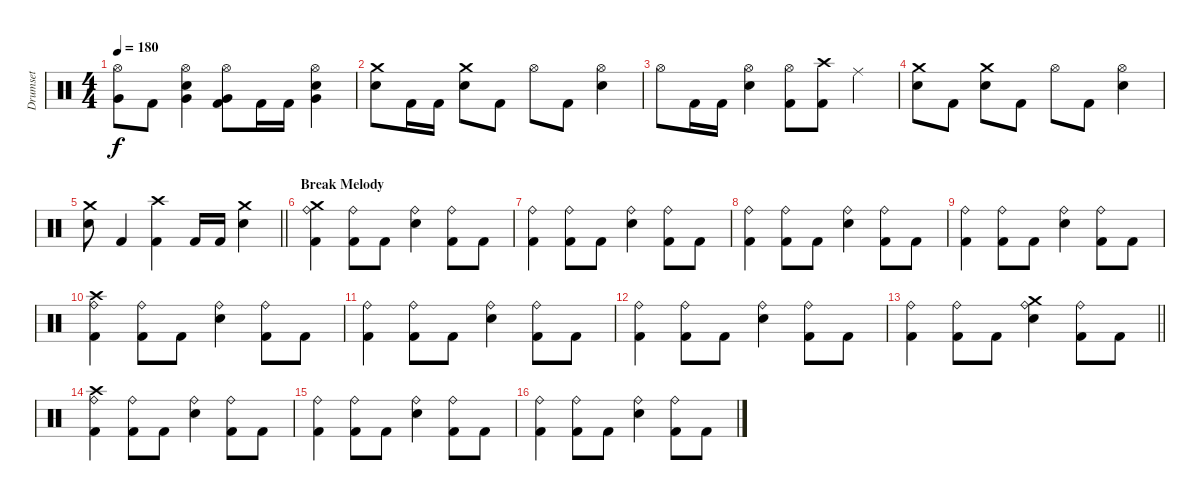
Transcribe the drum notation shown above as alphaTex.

\track ("Drumset" "Drumset") {instrument percussion}
\staff {score}
\articulation defaults
\ts (4 4)
\tempo 180
\clef neutral
\ks c
("Hi-Hat (open)" "Very Low Tom (hit)").8{dy f} "Kick (hit) 2".8 ("Hi-Hat (open)" "Very Low Tom (hit)" "Snare (hit) 2").4 ("Hi-Hat (open)" "Very Low Tom (hit)" "Kick (hit) 2").8 "Kick (hit) 2".16 "Kick (hit) 2".16 ("Hi-Hat (open)" "Very Low Tom (hit)" "Snare (hit) 2").4 |
("Crash medium (hit)" "Snare (hit) 2").8 "Kick (hit) 2".16 "Kick (hit) 2".16 ("Crash medium (hit)" "Snare (hit) 2").8 "Kick (hit) 2".8 "Hi-Hat (open)".8 "Kick (hit) 2".8 ("Hi-Hat (open)" "Snare (hit) 2").4 |
"Hi-Hat (open)".8 "Kick (hit) 2".16 "Kick (hit) 2".16 ("Hi-Hat (open)" "Snare (hit) 2").4 ("Hi-Hat (open)" "Kick (hit) 2").8 ("Crash high (hit)" "Kick (hit) 2").8 "Ride (middle)".4 |
("Crash medium (hit)" "Snare (hit) 2").8 "Kick (hit) 2".8 ("Crash medium (hit)" "Snare (hit) 2").8 "Kick (hit) 2".8 "Hi-Hat (open)".8 "Kick (hit) 2".8 ("Hi-Hat (open)" "Snare (hit) 2").4 |
\barLineRight lightlight
("Crash medium (hit)" "Snare (hit) 2").8 "Kick (hit) 2".4 ("Crash high (hit)" "Kick (hit) 2").4 "Kick (hit) 2".16 "Kick (hit) 2".16 ("Crash medium (hit)" "Snare (hit) 2").4 |
\section ("" "Break Melody")
("Ride (bell)" "Crash medium (hit)" "Kick (hit) 2").4 ("Ride (bell)" "Kick (hit) 2").8 "Kick (hit) 2".8 ("Ride (bell)" "Snare (hit) 2").4 ("Ride (bell)" "Kick (hit) 2").8 "Kick (hit) 2".8 |
("Ride (bell)" "Kick (hit) 2").4 ("Ride (bell)" "Kick (hit) 2").8 "Kick (hit) 2".8 ("Ride (bell)" "Snare (hit) 2").4 ("Ride (bell)" "Kick (hit) 2").8 "Kick (hit) 2".8 |
("Ride (bell)" "Kick (hit) 2").4 ("Ride (bell)" "Kick (hit) 2").8 "Kick (hit) 2".8 ("Ride (bell)" "Snare (hit) 2").4 ("Ride (bell)" "Kick (hit) 2").8 "Kick (hit) 2".8 |
("Ride (bell)" "Kick (hit) 2").4 ("Ride (bell)" "Kick (hit) 2").8 "Kick (hit) 2".8 ("Ride (bell)" "Snare (hit) 2").4 ("Ride (bell)" "Kick (hit) 2").8 "Kick (hit) 2".8 |
("Ride (bell)" "Crash high (hit)" "Kick (hit) 2").4 ("Ride (bell)" "Kick (hit) 2").8 "Kick (hit) 2".8 ("Ride (bell)" "Snare (hit) 2").4 ("Ride (bell)" "Kick (hit) 2").8 "Kick (hit) 2".8 |
("Ride (bell)" "Kick (hit) 2").4 ("Ride (bell)" "Kick (hit) 2").8 "Kick (hit) 2".8 ("Ride (bell)" "Snare (hit) 2").4 ("Ride (bell)" "Kick (hit) 2").8 "Kick (hit) 2".8 |
("Ride (bell)" "Kick (hit) 2").4 ("Ride (bell)" "Kick (hit) 2").8 "Kick (hit) 2".8 ("Ride (bell)" "Snare (hit) 2").4 ("Ride (bell)" "Kick (hit) 2").8 "Kick (hit) 2".8 |
\barLineRight lightlight
("Ride (bell)" "Kick (hit) 2").4 ("Ride (bell)" "Kick (hit) 2").8 "Kick (hit) 2".8 ("Ride (bell)" "Crash medium (hit)" "Snare (hit) 2").4 ("Ride (bell)" "Kick (hit) 2").8 "Kick (hit) 2".8 |
("Ride (bell)" "Crash high (hit)" "Kick (hit) 2").4 ("Ride (bell)" "Kick (hit) 2").8 "Kick (hit) 2".8 ("Ride (bell)" "Snare (hit) 2").4 ("Ride (bell)" "Kick (hit) 2").8 "Kick (hit) 2".8 |
("Ride (bell)" "Kick (hit) 2").4 ("Ride (bell)" "Kick (hit) 2").8 "Kick (hit) 2".8 ("Ride (bell)" "Snare (hit) 2").4 ("Ride (bell)" "Kick (hit) 2").8 "Kick (hit) 2".8 |
("Ride (bell)" "Kick (hit) 2").4 ("Ride (bell)" "Kick (hit) 2").8 "Kick (hit) 2".8 ("Ride (bell)" "Snare (hit) 2").4 ("Ride (bell)" "Kick (hit) 2").8 "Kick (hit) 2".8
